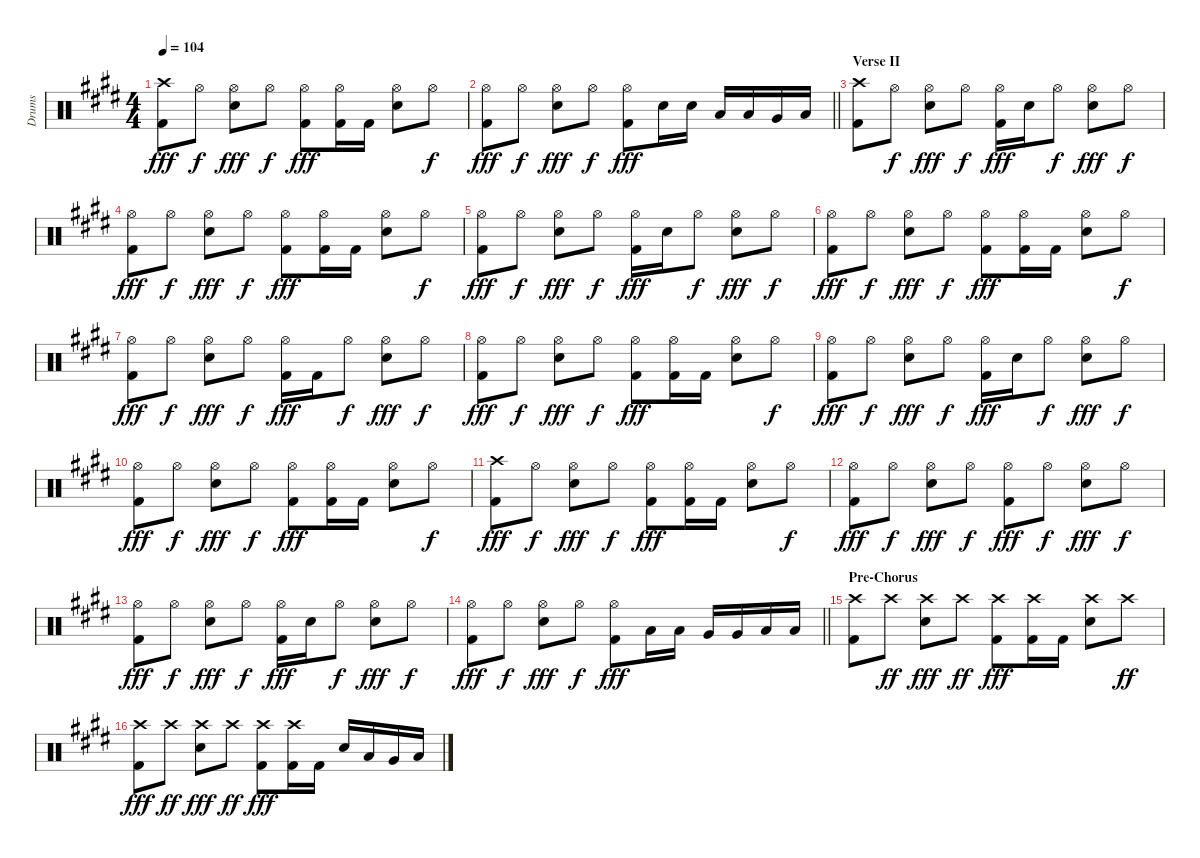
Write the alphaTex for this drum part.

\track ("Drums" "Drums") {instrument percussion}
\staff {score}
\articulation defaults
\ts (4 4)
\tempo 104
\clef neutral
\ks e
("Crash high (hit)" "Kick (hit) 2").8{dy fff} "Hi-Hat (open)".8{dy f} ("Hi-Hat (open)" "Snare (hit) 2").8{dy fff} "Hi-Hat (open)".8{dy f} ("Hi-Hat (open)" "Kick (hit) 2").8{dy fff} ("Hi-Hat (open)" "Kick (hit) 2").16 "Kick (hit) 2".16 ("Hi-Hat (open)" "Snare (hit) 2").8 "Hi-Hat (open)".8{dy f} |
\barLineRight lightlight
("Hi-Hat (open)" "Kick (hit) 2").8{dy fff} "Hi-Hat (open)".8{dy f} ("Hi-Hat (open)" "Snare (hit) 2").8{dy fff} "Hi-Hat (open)".8{dy f} ("Hi-Hat (open)" "Kick (hit) 2").8{dy fff} "Snare (hit) 2".16 "Snare (hit) 2".16 "Low Tom (hit)".16 "Low Tom (hit)".16 "Very Low Tom (hit)".16 "Low Floor Tom (hit)".16 |
\section ("" "Verse II")
("Crash high (hit)" "Kick (hit) 2").8 "Hi-Hat (open)".8{dy f} ("Hi-Hat (open)" "Snare (hit) 2").8{dy fff} "Hi-Hat (open)".8{dy f} ("Hi-Hat (open)" "Kick (hit) 2").16{dy fff} "Snare (hit) 2".16 "Hi-Hat (open)".8{dy f} ("Hi-Hat (open)" "Snare (hit) 2").8{dy fff} "Hi-Hat (open)".8{dy f} |
("Hi-Hat (open)" "Kick (hit) 2").8{dy fff} "Hi-Hat (open)".8{dy f} ("Hi-Hat (open)" "Snare (hit) 2").8{dy fff} "Hi-Hat (open)".8{dy f} ("Hi-Hat (open)" "Kick (hit) 2").8{dy fff} ("Hi-Hat (open)" "Kick (hit) 2").16 "Kick (hit) 2".16 ("Hi-Hat (open)" "Snare (hit) 2").8 "Hi-Hat (open)".8{dy f} |
("Hi-Hat (open)" "Kick (hit) 2").8{dy fff} "Hi-Hat (open)".8{dy f} ("Hi-Hat (open)" "Snare (hit) 2").8{dy fff} "Hi-Hat (open)".8{dy f} ("Hi-Hat (open)" "Kick (hit) 2").16{dy fff} "Snare (hit) 2".16 "Hi-Hat (open)".8{dy f} ("Hi-Hat (open)" "Snare (hit) 2").8{dy fff} "Hi-Hat (open)".8{dy f} |
("Hi-Hat (open)" "Kick (hit) 2").8{dy fff} "Hi-Hat (open)".8{dy f} ("Hi-Hat (open)" "Snare (hit) 2").8{dy fff} "Hi-Hat (open)".8{dy f} ("Hi-Hat (open)" "Kick (hit) 2").8{dy fff} ("Hi-Hat (open)" "Kick (hit) 2").16 "Kick (hit) 2".16 ("Hi-Hat (open)" "Snare (hit) 2").8 "Hi-Hat (open)".8{dy f} |
("Hi-Hat (open)" "Kick (hit) 2").8{dy fff} "Hi-Hat (open)".8{dy f} ("Hi-Hat (open)" "Snare (hit) 2").8{dy fff} "Hi-Hat (open)".8{dy f} ("Hi-Hat (open)" "Kick (hit) 2").16{dy fff} "Kick (hit) 2".16 "Hi-Hat (open)".8{dy f} ("Hi-Hat (open)" "Snare (hit) 2").8{dy fff} "Hi-Hat (open)".8{dy f} |
("Hi-Hat (open)" "Kick (hit) 2").8{dy fff} "Hi-Hat (open)".8{dy f} ("Hi-Hat (open)" "Snare (hit) 2").8{dy fff} "Hi-Hat (open)".8{dy f} ("Hi-Hat (open)" "Kick (hit) 2").8{dy fff} ("Hi-Hat (open)" "Kick (hit) 2").16 "Kick (hit) 2".16 ("Hi-Hat (open)" "Snare (hit) 2").8 "Hi-Hat (open)".8{dy f} |
("Hi-Hat (open)" "Kick (hit) 2").8{dy fff} "Hi-Hat (open)".8{dy f} ("Hi-Hat (open)" "Snare (hit) 2").8{dy fff} "Hi-Hat (open)".8{dy f} ("Hi-Hat (open)" "Kick (hit) 2").16{dy fff} "Snare (hit) 2".16 "Hi-Hat (open)".8{dy f} ("Hi-Hat (open)" "Snare (hit) 2").8{dy fff} "Hi-Hat (open)".8{dy f} |
("Hi-Hat (open)" "Kick (hit) 2").8{dy fff} "Hi-Hat (open)".8{dy f} ("Hi-Hat (open)" "Snare (hit) 2").8{dy fff} "Hi-Hat (open)".8{dy f} ("Hi-Hat (open)" "Kick (hit) 2").8{dy fff} ("Hi-Hat (open)" "Kick (hit) 2").16 "Kick (hit) 2".16 ("Hi-Hat (open)" "Snare (hit) 2").8 "Hi-Hat (open)".8{dy f} |
("Crash high (hit)" "Kick (hit) 2").8{dy fff} "Hi-Hat (open)".8{dy f} ("Hi-Hat (open)" "Snare (hit) 2").8{dy fff} "Hi-Hat (open)".8{dy f} ("Hi-Hat (open)" "Kick (hit) 2").8{dy fff} ("Hi-Hat (open)" "Kick (hit) 2").16 "Kick (hit) 2".16 ("Hi-Hat (open)" "Snare (hit) 2").8 "Hi-Hat (open)".8{dy f} |
("Hi-Hat (open)" "Kick (hit) 2").8{dy fff} "Hi-Hat (open)".8{dy f} ("Hi-Hat (open)" "Snare (hit) 2").8{dy fff} "Hi-Hat (open)".8{dy f} ("Hi-Hat (open)" "Kick (hit) 2").8{dy fff} "Hi-Hat (open)".8{dy f} ("Hi-Hat (open)" "Snare (hit) 2").8{dy fff} "Hi-Hat (open)".8{dy f} |
("Hi-Hat (open)" "Kick (hit) 2").8{dy fff} "Hi-Hat (open)".8{dy f} ("Hi-Hat (open)" "Snare (hit) 2").8{dy fff} "Hi-Hat (open)".8{dy f} ("Hi-Hat (open)" "Kick (hit) 2").16{dy fff} "Snare (hit) 2".16 "Hi-Hat (open)".8{dy f} ("Hi-Hat (open)" "Snare (hit) 2").8{dy fff} "Hi-Hat (open)".8{dy f} |
\barLineRight lightlight
("Hi-Hat (open)" "Kick (hit) 2").8{dy fff} "Hi-Hat (open)".8{dy f} ("Hi-Hat (open)" "Snare (hit) 2").8{dy fff} "Hi-Hat (open)".8{dy f} ("Hi-Hat (open)" "Kick (hit) 2").8{dy fff} "Low Tom (hit)".16 "Low Tom (hit)".16 "Very Low Tom (hit)".16 "Very Low Tom (hit)".16 "Low Floor Tom (hit)".16 "Low Floor Tom (hit)".16 |
\section ("" "Pre-Chorus")
("Crash high (hit)" "Kick (hit) 2").8 "Crash high (hit)".8{dy ff} ("Crash high (hit)" "Snare (hit) 2").8{dy fff} "Crash high (hit)".8{dy ff} ("Crash high (hit)" "Kick (hit) 2").8{dy fff} ("Crash high (hit)" "Kick (hit) 2").16 "Kick (hit) 2".16 ("Crash high (hit)" "Snare (hit) 2").8 "Crash high (hit)".8{dy ff} |
("Crash high (hit)" "Kick (hit) 2").8{dy fff} "Crash high (hit)".8{dy ff} ("Crash high (hit)" "Snare (hit) 2").8{dy fff} "Crash high (hit)".8{dy ff} ("Crash high (hit)" "Kick (hit) 2").8{dy fff} ("Crash high (hit)" "Kick (hit) 2").16 "Kick (hit) 2".16 "Snare (hit) 2".16 "Low Tom (hit)".16 "Very Low Tom (hit)".16 "Low Floor Tom (hit)".16
